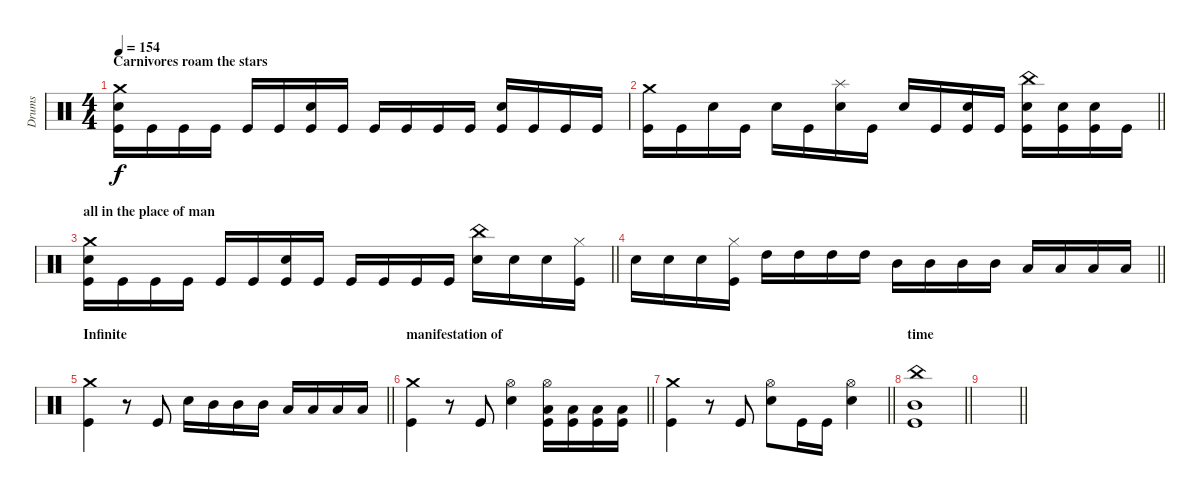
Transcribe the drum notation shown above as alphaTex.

\track ("Drums" "Drums") {instrument percussion}
\staff {score}
\articulation defaults
\ts (4 4)
\section ("" "Carnivores roam the stars ")
\tempo 154
\clef neutral
\ks c
("Crash medium (hit)" "Snare (hit) 2" "Kick (hit)").16{dy f} "Kick (hit)".16 "Kick (hit)".16 "Kick (hit)".16 "Kick (hit)".16 "Kick (hit)".16 ("Snare (hit) 2" "Kick (hit)").16 "Kick (hit)".16 "Kick (hit)".16 "Kick (hit)".16 "Kick (hit)".16 "Kick (hit)".16 ("Snare (hit) 2" "Kick (hit)").16 "Kick (hit)".16 "Kick (hit)".16 "Kick (hit)".16 |
\barLineRight lightlight
("Crash medium (hit)" "Kick (hit)").16 "Kick (hit)".16 "Snare (hit) 2".16 "Kick (hit)".16 "Snare (hit) 2".16 "Kick (hit)".16 ("Splash (hit)" "Snare (hit) 2").16 "Kick (hit)".16 "Snare (hit) 2".16 "Kick (hit)".16 ("Snare (hit) 2" "Kick (hit)").16 "Kick (hit)".16 ("China (hit)" "Snare (hit) 2" "Kick (hit)").16 ("Snare (hit) 2" "Kick (hit)").16 ("Snare (hit) 2" "Kick (hit)").16 "Kick (hit)".16 |
\section ("" "all in the place of man")
\barLineRight lightlight
("Crash medium (hit)" "Snare (hit) 2" "Kick (hit)").16 "Kick (hit)".16 "Kick (hit)".16 "Kick (hit)".16 "Kick (hit)".16 "Kick (hit)".16 ("Snare (hit) 2" "Kick (hit)").16 "Kick (hit)".16 "Kick (hit)".16 "Kick (hit)".16 "Kick (hit)".16 "Kick (hit)".16 ("China (hit)" "Snare (hit) 2").16 "Snare (hit) 2".16 "Snare (hit) 2".16 ("Hi-Hat (closed)" "Kick (hit)").16 |
\barLineRight lightlight "Snare (hit) 2".16 "Snare (hit) 2".16 "Snare (hit) 2".16
("Hi-Hat (closed)" "Kick (hit)").16 "High Tom (hit)".16 "High Tom (hit)".16 "High Tom (hit)".16 "High Tom (hit)".16 "Mid Tom (hit)".16 "Mid Tom (hit)".16 "Mid Tom (hit)".16 "Mid Tom (hit)".16 "Low Tom (hit)".16 "Low Tom (hit)".16 "Low Tom (hit)".16 "Low Tom (hit)".16 |
\section ("" "Infinite ")
\barLineRight lightlight
("Crash medium (hit)" "Kick (hit)").4 r.8 "Kick (hit)".8 "Snare (hit) 2".16 "Mid Tom (hit)".16 "Mid Tom (hit)".16 "Mid Tom (hit)".16 "Low Tom (hit)".16 "Low Tom (hit)".16 "Low Tom (hit)".16 "Low Tom (hit)".16 |
\section ("" "manifestation of")
\barLineRight lightlight
("Crash medium (hit)" "Kick (hit)").4 r.8 "Kick (hit)".8 ("Hi-Hat (open)" "Snare (hit) 2").4 ("Hi-Hat (open)" "Low Tom (hit)" "Kick (hit)").16 ("Low Tom (hit)" "Kick (hit)").16 ("Low Tom (hit)" "Kick (hit)").16 ("Low Tom (hit)" "Kick (hit)").16 |
\barLineRight lightlight
("Crash medium (hit)" "Kick (hit)").4 r.8 "Kick (hit)".8 ("Hi-Hat (open)" "Snare (hit) 2").8 "Kick (hit)".16 "Kick (hit)".16 ("Hi-Hat (open)" "Snare (hit) 2").4 |
\section ("" "time")
\barLineRight lightlight
("China (hit)" "Mid Tom (hit)" "Kick (hit)").1 |
\barLineRight lightlight
